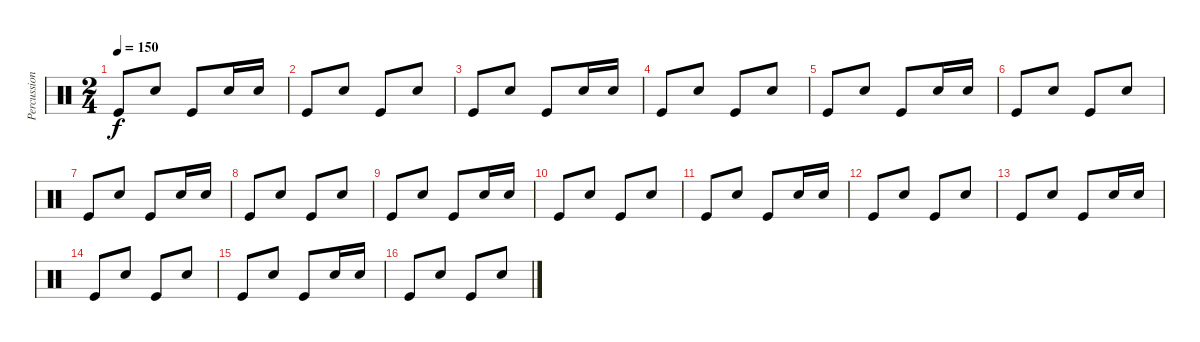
\track ("Percussions" "Percussion") {instrument percussion}
\staff {score}
\articulation defaults
\ts (2 4)
\tempo 150
\clef neutral
\ks c "Kick (hit)".8{dy f} "Electric Snare (hit)".8 "Kick (hit)".8 "Electric Snare (hit)".16 "Electric Snare (hit)".16
|
"Kick (hit)".8 "Electric Snare (hit)".8 "Kick (hit)".8 "Electric Snare (hit)".8 |
"Kick (hit)".8 "Electric Snare (hit)".8 "Kick (hit)".8 "Electric Snare (hit)".16 "Electric Snare (hit)".16 |
"Kick (hit)".8 "Electric Snare (hit)".8 "Kick (hit)".8 "Electric Snare (hit)".8 |
"Kick (hit)".8 "Electric Snare (hit)".8 "Kick (hit)".8 "Electric Snare (hit)".16 "Electric Snare (hit)".16 |
"Kick (hit)".8 "Electric Snare (hit)".8 "Kick (hit)".8 "Electric Snare (hit)".8 |
"Kick (hit)".8 "Electric Snare (hit)".8 "Kick (hit)".8 "Electric Snare (hit)".16 "Electric Snare (hit)".16 |
"Kick (hit)".8 "Electric Snare (hit)".8 "Kick (hit)".8 "Electric Snare (hit)".8 |
"Kick (hit)".8 "Electric Snare (hit)".8 "Kick (hit)".8 "Electric Snare (hit)".16 "Electric Snare (hit)".16 |
"Kick (hit)".8 "Electric Snare (hit)".8 "Kick (hit)".8 "Electric Snare (hit)".8 |
"Kick (hit)".8 "Electric Snare (hit)".8 "Kick (hit)".8 "Electric Snare (hit)".16 "Electric Snare (hit)".16 |
"Kick (hit)".8 "Electric Snare (hit)".8 "Kick (hit)".8 "Electric Snare (hit)".8 |
"Kick (hit)".8 "Electric Snare (hit)".8 "Kick (hit)".8 "Electric Snare (hit)".16 "Electric Snare (hit)".16 |
"Kick (hit)".8 "Electric Snare (hit)".8 "Kick (hit)".8 "Electric Snare (hit)".8 |
"Kick (hit)".8 "Electric Snare (hit)".8 "Kick (hit)".8 "Electric Snare (hit)".16 "Electric Snare (hit)".16 |
"Kick (hit)".8 "Electric Snare (hit)".8 "Kick (hit)".8 "Electric Snare (hit)".8
